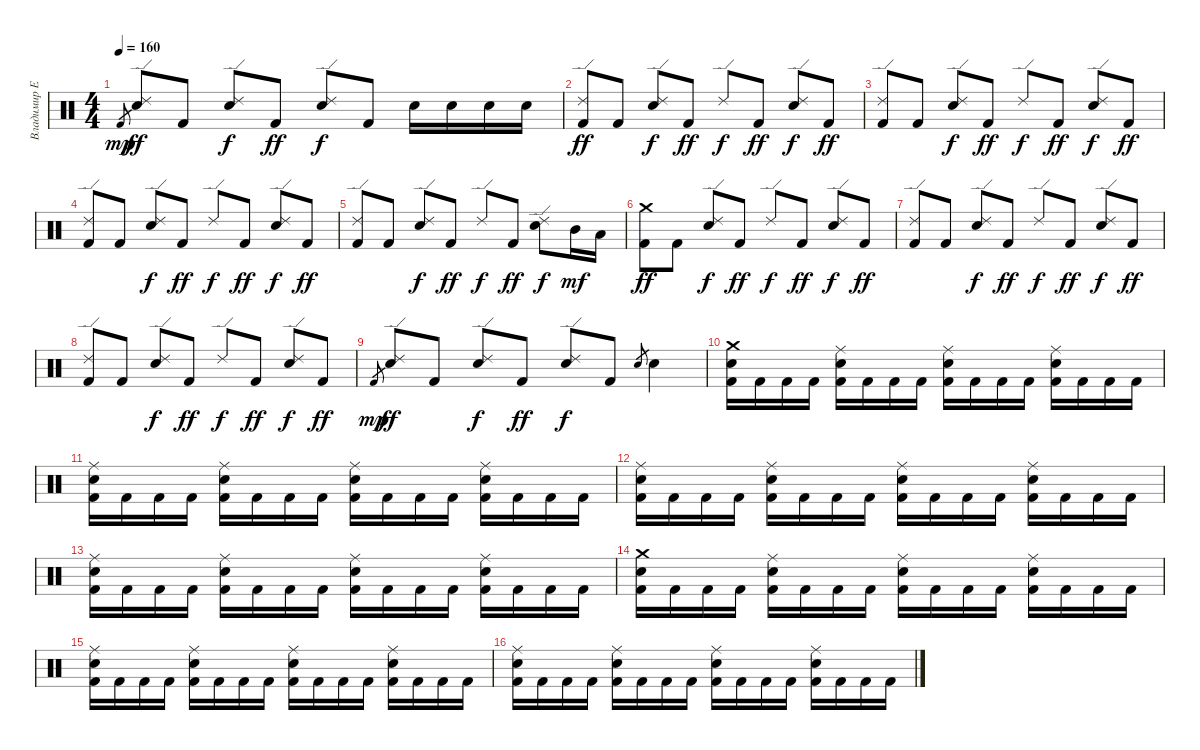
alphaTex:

\track ("Владимир Ермаков" "Владимир Е") {instrument percussion}
\staff {score}
\articulation defaults
\ts (4 4)
\tempo 160
\clef neutral
\ks c "Kick (hit) 2".8{gr dy mp}
("Ride (edge) 2" "Electric Snare (hit)").8{dy ff} "Kick (hit) 2".8 ("Ride (edge) 2" "Electric Snare (hit)").8{dy f} "Kick (hit) 2".8{dy ff} ("Ride (edge) 2" "Electric Snare (hit)").8{dy f} "Kick (hit) 2".8 "Electric Snare (hit)".16 "Electric Snare (hit)".16 "Electric Snare (hit)".16 "Electric Snare (hit)".16 |
("Ride (edge) 2" "Kick (hit) 2").8{dy ff} "Kick (hit) 2".8 ("Ride (edge) 2" "Electric Snare (hit)").8{dy f} "Kick (hit) 2".8{dy ff} "Ride (edge) 2".8{dy f} "Kick (hit) 2".8{dy ff} ("Ride (edge) 2" "Electric Snare (hit)").8{dy f} "Kick (hit) 2".8{dy ff} |
("Ride (edge) 2" "Kick (hit) 2").8 "Kick (hit) 2".8 ("Ride (edge) 2" "Electric Snare (hit)").8{dy f} "Kick (hit) 2".8{dy ff} "Ride (edge) 2".8{dy f} "Kick (hit) 2".8{dy ff} ("Ride (edge) 2" "Electric Snare (hit)").8{dy f} "Kick (hit) 2".8{dy ff} |
("Ride (edge) 2" "Kick (hit) 2").8 "Kick (hit) 2".8 ("Ride (edge) 2" "Electric Snare (hit)").8{dy f} "Kick (hit) 2".8{dy ff} "Ride (edge) 2".8{dy f} "Kick (hit) 2".8{dy ff} ("Ride (edge) 2" "Electric Snare (hit)").8{dy f} "Kick (hit) 2".8{dy ff} |
("Ride (edge) 2" "Kick (hit) 2").8 "Kick (hit) 2".8 ("Ride (edge) 2" "Electric Snare (hit)").8{dy f} "Kick (hit) 2".8{dy ff} "Ride (edge) 2".8{dy f} "Kick (hit) 2".8{dy ff} ("Ride (edge) 2" "Electric Snare (hit)").8{dy f} "Mid Tom (hit)".16{dy mf} "Low Tom (hit)".16 |
("Crash medium (hit)" "Kick (hit) 2").8{dy ff} "Kick (hit) 2".8 ("Ride (edge) 2" "Electric Snare (hit)").8{dy f} "Kick (hit) 2".8{dy ff} "Ride (edge) 2".8{dy f} "Kick (hit) 2".8{dy ff} ("Ride (edge) 2" "Electric Snare (hit)").8{dy f} "Kick (hit) 2".8{dy ff} |
("Ride (edge) 2" "Kick (hit) 2").8 "Kick (hit) 2".8 ("Ride (edge) 2" "Electric Snare (hit)").8{dy f} "Kick (hit) 2".8{dy ff} "Ride (edge) 2".8{dy f} "Kick (hit) 2".8{dy ff} ("Ride (edge) 2" "Electric Snare (hit)").8{dy f} "Kick (hit) 2".8{dy ff} |
("Ride (edge) 2" "Kick (hit) 2").8 "Kick (hit) 2".8 ("Ride (edge) 2" "Electric Snare (hit)").8{dy f} "Kick (hit) 2".8{dy ff} "Ride (edge) 2".8{dy f} "Kick (hit) 2".8{dy ff} ("Ride (edge) 2" "Electric Snare (hit)").8{dy f} "Kick (hit) 2".8{dy ff} |
"Kick (hit) 2".8{gr dy mp} ("Ride (edge) 2" "Electric Snare (hit)").8{dy ff} "Kick (hit) 2".8 ("Ride (edge) 2" "Electric Snare (hit)").8{dy f} "Kick (hit) 2".8{dy ff} ("Ride (edge) 2" "Electric Snare (hit)").8{dy f} "Kick (hit) 2".8 "Electric Snare (hit)".8{gr} "Electric Snare (hit)".4 |
("Crash medium (hit)" "Kick (hit) 2" "Electric Snare (hit)").16 "Kick (hit) 2".16 "Kick (hit) 2".16 "Kick (hit) 2".16 ("Ride (middle)" "Kick (hit) 2" "Electric Snare (hit)").16 "Kick (hit) 2".16 "Kick (hit) 2".16 "Kick (hit) 2".16 ("Ride (middle)" "Kick (hit) 2" "Electric Snare (hit)").16 "Kick (hit) 2".16 "Kick (hit) 2".16 "Kick (hit) 2".16 ("Ride (middle)" "Kick (hit) 2" "Electric Snare (hit)").16 "Kick (hit) 2".16 "Kick (hit) 2".16 "Kick (hit) 2".16 |
("Ride (middle)" "Kick (hit) 2" "Electric Snare (hit)").16 "Kick (hit) 2".16 "Kick (hit) 2".16 "Kick (hit) 2".16 ("Ride (middle)" "Kick (hit) 2" "Electric Snare (hit)").16 "Kick (hit) 2".16 "Kick (hit) 2".16 "Kick (hit) 2".16 ("Ride (middle)" "Kick (hit) 2" "Electric Snare (hit)").16 "Kick (hit) 2".16 "Kick (hit) 2".16 "Kick (hit) 2".16 ("Ride (middle)" "Kick (hit) 2" "Electric Snare (hit)").16 "Kick (hit) 2".16 "Kick (hit) 2".16 "Kick (hit) 2".16 |
("Ride (middle)" "Kick (hit) 2" "Electric Snare (hit)").16 "Kick (hit) 2".16 "Kick (hit) 2".16 "Kick (hit) 2".16 ("Ride (middle)" "Kick (hit) 2" "Electric Snare (hit)").16 "Kick (hit) 2".16 "Kick (hit) 2".16 "Kick (hit) 2".16 ("Ride (middle)" "Kick (hit) 2" "Electric Snare (hit)").16 "Kick (hit) 2".16 "Kick (hit) 2".16 "Kick (hit) 2".16 ("Ride (middle)" "Kick (hit) 2" "Electric Snare (hit)").16 "Kick (hit) 2".16 "Kick (hit) 2".16 "Kick (hit) 2".16 |
("Ride (middle)" "Kick (hit) 2" "Electric Snare (hit)").16 "Kick (hit) 2".16 "Kick (hit) 2".16 "Kick (hit) 2".16 ("Ride (middle)" "Kick (hit) 2" "Electric Snare (hit)").16 "Kick (hit) 2".16 "Kick (hit) 2".16 "Kick (hit) 2".16 ("Ride (middle)" "Kick (hit) 2" "Electric Snare (hit)").16 "Kick (hit) 2".16 "Kick (hit) 2".16 "Kick (hit) 2".16 ("Ride (middle)" "Kick (hit) 2" "Electric Snare (hit)").16 "Kick (hit) 2".16 "Kick (hit) 2".16 "Kick (hit) 2".16 |
("Crash medium (hit)" "Kick (hit) 2" "Electric Snare (hit)").16 "Kick (hit) 2".16 "Kick (hit) 2".16 "Kick (hit) 2".16 ("Ride (middle)" "Kick (hit) 2" "Electric Snare (hit)").16 "Kick (hit) 2".16 "Kick (hit) 2".16 "Kick (hit) 2".16 ("Ride (middle)" "Kick (hit) 2" "Electric Snare (hit)").16 "Kick (hit) 2".16 "Kick (hit) 2".16 "Kick (hit) 2".16 ("Ride (middle)" "Kick (hit) 2" "Electric Snare (hit)").16 "Kick (hit) 2".16 "Kick (hit) 2".16 "Kick (hit) 2".16 |
("Ride (middle)" "Kick (hit) 2" "Electric Snare (hit)").16 "Kick (hit) 2".16 "Kick (hit) 2".16 "Kick (hit) 2".16 ("Ride (middle)" "Kick (hit) 2" "Electric Snare (hit)").16 "Kick (hit) 2".16 "Kick (hit) 2".16 "Kick (hit) 2".16 ("Ride (middle)" "Kick (hit) 2" "Electric Snare (hit)").16 "Kick (hit) 2".16 "Kick (hit) 2".16 "Kick (hit) 2".16 ("Ride (middle)" "Kick (hit) 2" "Electric Snare (hit)").16 "Kick (hit) 2".16 "Kick (hit) 2".16 "Kick (hit) 2".16 |
("Ride (middle)" "Kick (hit) 2" "Electric Snare (hit)").16 "Kick (hit) 2".16 "Kick (hit) 2".16 "Kick (hit) 2".16 ("Ride (middle)" "Kick (hit) 2" "Electric Snare (hit)").16 "Kick (hit) 2".16 "Kick (hit) 2".16 "Kick (hit) 2".16 ("Ride (middle)" "Kick (hit) 2" "Electric Snare (hit)").16 "Kick (hit) 2".16 "Kick (hit) 2".16 "Kick (hit) 2".16 ("Ride (middle)" "Kick (hit) 2" "Electric Snare (hit)").16 "Kick (hit) 2".16 "Kick (hit) 2".16 "Kick (hit) 2".16
